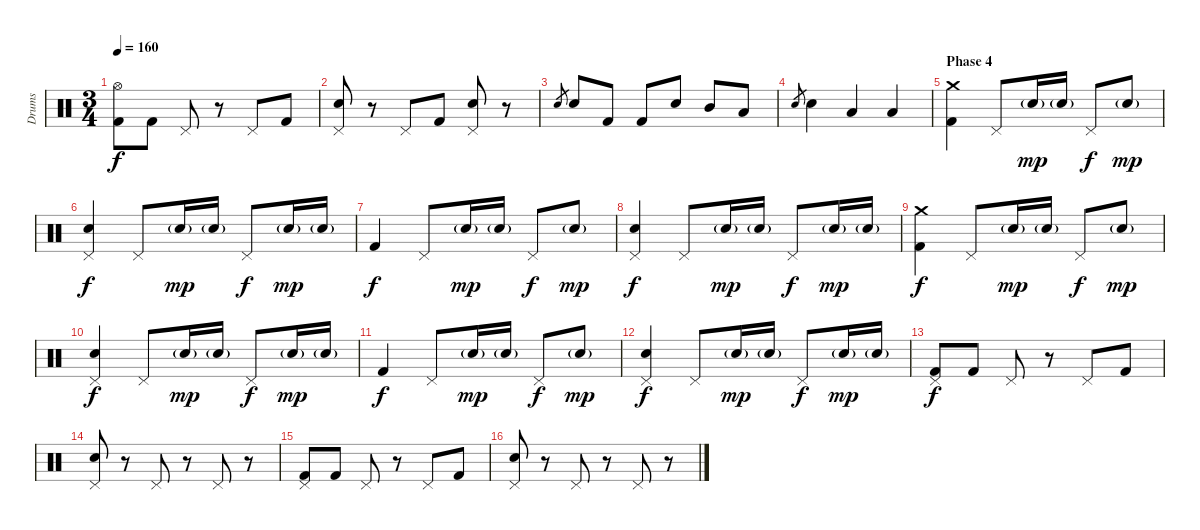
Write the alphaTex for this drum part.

\track ("Drums" "Drums") {instrument percussion}
\staff {score}
\articulation defaults
\ts (3 4)
\tempo 160
\clef neutral
\ks c
("Hi-Hat (open)" "Kick (hit) 2").8{dy f} "Kick (hit) 2".8 "Pedal Hi-Hat (hit)".8 r.8 "Pedal Hi-Hat (hit)".8 "Kick (hit) 2".8 |
("Pedal Hi-Hat (hit)" "Snare (hit) 2").8 r.8 "Pedal Hi-Hat (hit)".8 "Kick (hit) 2".8 ("Pedal Hi-Hat (hit)" "Snare (hit) 2").8 r.8 |
"Snare (hit) 2".8{gr} "Snare (hit) 2".8 "Kick (hit) 2".8 "Kick (hit) 2".8 "Snare (hit) 2".8 "Mid Tom (hit)".8 "Low Tom (hit)".8 |
"Snare (hit) 2".8{gr} "Snare (hit) 2".4 "Low Tom (hit)".4 "Low Floor Tom (hit)".4 |
\section ("" "Phase 4")
("Crash medium (hit)" "Kick (hit) 2").4 "Pedal Hi-Hat (hit)".8 "Snare (hit) 2"{g}.16{dy mp} "Snare (hit) 2"{g}.16 "Pedal Hi-Hat (hit)".8{dy f} "Snare (hit) 2"{g}.8{dy mp} |
("Pedal Hi-Hat (hit)" "Snare (hit) 2").4{dy f} "Pedal Hi-Hat (hit)".8 "Snare (hit) 2"{g}.16{dy mp} "Snare (hit) 2"{g}.16 "Pedal Hi-Hat (hit)".8{dy f} "Snare (hit) 2"{g}.16{dy mp} "Snare (hit) 2"{g}.16 |
"Kick (hit) 2".4{dy f} "Pedal Hi-Hat (hit)".8 "Snare (hit) 2"{g}.16{dy mp} "Snare (hit) 2"{g}.16 "Pedal Hi-Hat (hit)".8{dy f} "Snare (hit) 2"{g}.8{dy mp} |
("Pedal Hi-Hat (hit)" "Snare (hit) 2").4{dy f} "Pedal Hi-Hat (hit)".8 "Snare (hit) 2"{g}.16{dy mp} "Snare (hit) 2"{g}.16 "Pedal Hi-Hat (hit)".8{dy f} "Snare (hit) 2"{g}.16{dy mp} "Snare (hit) 2"{g}.16 |
("Crash medium (hit)" "Kick (hit) 2").4{dy f} "Pedal Hi-Hat (hit)".8 "Snare (hit) 2"{g}.16{dy mp} "Snare (hit) 2"{g}.16 "Pedal Hi-Hat (hit)".8{dy f} "Snare (hit) 2"{g}.8{dy mp} |
("Pedal Hi-Hat (hit)" "Snare (hit) 2").4{dy f} "Pedal Hi-Hat (hit)".8 "Snare (hit) 2"{g}.16{dy mp} "Snare (hit) 2"{g}.16 "Pedal Hi-Hat (hit)".8{dy f} "Snare (hit) 2"{g}.16{dy mp} "Snare (hit) 2"{g}.16 |
"Kick (hit) 2".4{dy f} "Pedal Hi-Hat (hit)".8 "Snare (hit) 2"{g}.16{dy mp} "Snare (hit) 2"{g}.16 "Pedal Hi-Hat (hit)".8{dy f} "Snare (hit) 2"{g}.8{dy mp} |
("Pedal Hi-Hat (hit)" "Snare (hit) 2").4{dy f} "Pedal Hi-Hat (hit)".8 "Snare (hit) 2"{g}.16{dy mp} "Snare (hit) 2"{g}.16 "Pedal Hi-Hat (hit)".8{dy f} "Snare (hit) 2"{g}.16{dy mp} "Snare (hit) 2"{g}.16 |
("Pedal Hi-Hat (hit)" "Kick (hit) 2").8{dy f} "Kick (hit) 2".8 "Pedal Hi-Hat (hit)".8 r.8 "Pedal Hi-Hat (hit)".8 "Kick (hit) 2".8 |
("Pedal Hi-Hat (hit)" "Snare (hit) 2").8 r.8 "Pedal Hi-Hat (hit)".8 r.8 "Pedal Hi-Hat (hit)".8 r.8 |
("Pedal Hi-Hat (hit)" "Kick (hit) 2").8 "Kick (hit) 2".8 "Pedal Hi-Hat (hit)".8 r.8 "Pedal Hi-Hat (hit)".8 "Kick (hit) 2".8 |
("Pedal Hi-Hat (hit)" "Snare (hit) 2").8 r.8 "Pedal Hi-Hat (hit)".8 r.8 "Pedal Hi-Hat (hit)".8 r.8
